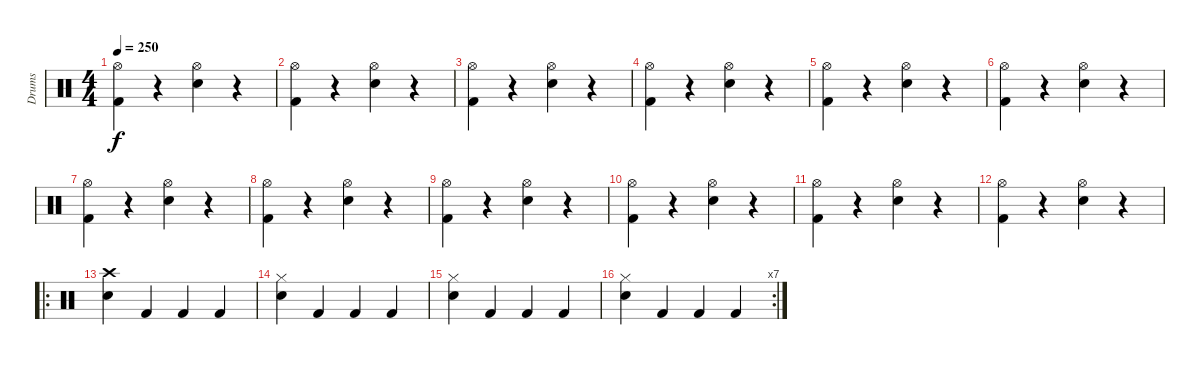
\track ("Drums" "Drums") {instrument percussion}
\staff {score}
\articulation defaults
\ts (4 4)
\tempo 250
\clef neutral
\ks c
("Hi-Hat (open)" "Kick (hit) 2").4{dy f} r.4 ("Hi-Hat (open)" "Snare (hit) 2").4 r.4 |
("Hi-Hat (open)" "Kick (hit) 2").4 r.4 ("Hi-Hat (open)" "Snare (hit) 2").4 r.4 |
("Hi-Hat (open)" "Kick (hit) 2").4 r.4 ("Hi-Hat (open)" "Snare (hit) 2").4 r.4 |
("Hi-Hat (open)" "Kick (hit) 2").4 r.4 ("Hi-Hat (open)" "Snare (hit) 2").4 r.4 |
("Hi-Hat (open)" "Kick (hit) 2").4 r.4 ("Hi-Hat (open)" "Snare (hit) 2").4 r.4 |
("Hi-Hat (open)" "Kick (hit) 2").4 r.4 ("Hi-Hat (open)" "Snare (hit) 2").4 r.4 |
("Hi-Hat (open)" "Kick (hit) 2").4 r.4 ("Hi-Hat (open)" "Snare (hit) 2").4 r.4 |
("Hi-Hat (open)" "Kick (hit) 2").4 r.4 ("Hi-Hat (open)" "Snare (hit) 2").4 r.4 |
("Hi-Hat (open)" "Kick (hit) 2").4 r.4 ("Hi-Hat (open)" "Snare (hit) 2").4 r.4 |
("Hi-Hat (open)" "Kick (hit) 2").4 r.4 ("Hi-Hat (open)" "Snare (hit) 2").4 r.4 |
("Hi-Hat (open)" "Kick (hit) 2").4 r.4 ("Hi-Hat (open)" "Snare (hit) 2").4 r.4 |
("Hi-Hat (open)" "Kick (hit) 2").4 r.4 ("Hi-Hat (open)" "Snare (hit) 2").4 r.4 |
\ro
("Crash high (hit)" "Snare (hit) 2").4 "Kick (hit) 2".4 "Kick (hit) 2".4 "Kick (hit) 2".4 |
("Hi-Hat (closed)" "Snare (hit) 2").4 "Kick (hit) 2".4 "Kick (hit) 2".4 "Kick (hit) 2".4 |
("Hi-Hat (closed)" "Snare (hit) 2").4 "Kick (hit) 2".4 "Kick (hit) 2".4 "Kick (hit) 2".4 |
\rc 7
("Hi-Hat (closed)" "Snare (hit) 2").4 "Kick (hit) 2".4 "Kick (hit) 2".4 "Kick (hit) 2".4
